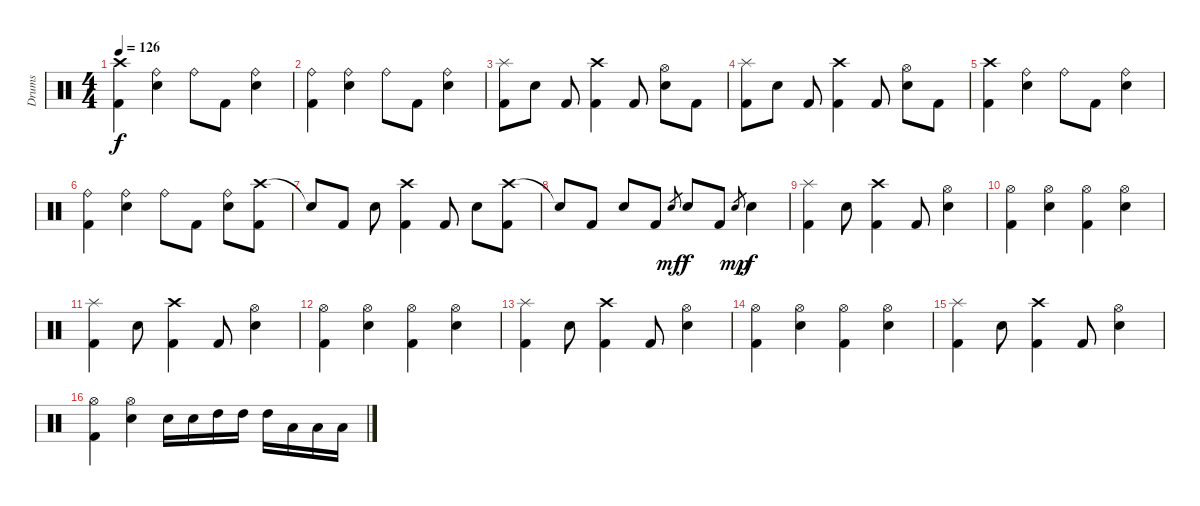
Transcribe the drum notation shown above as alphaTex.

\track ("Drums" "Drums") {instrument percussion}
\staff {score}
\articulation defaults
\ts (4 4)
\tempo 126
\clef neutral
\ks c
("Crash high (hit)" "Kick (hit) 2").4{dy f} ("Ride (bell)" "Snare (hit) 2").4 "Ride (bell)".8 "Kick (hit) 2".8 ("Ride (bell)" "Snare (hit) 2").4 |
("Ride (bell)" "Kick (hit) 2").4 ("Ride (bell)" "Snare (hit) 2").4 "Ride (bell)".8 "Kick (hit) 2".8 ("Ride (bell)" "Snare (hit) 2").4 |
("Splash (hit)" "Kick (hit) 2").8 "Snare (hit) 2".8 "Kick (hit) 2".8 ("Crash high (hit)" "Kick (hit) 2").4 "Kick (hit) 2".8 ("Hi-Hat (open)" "Snare (hit) 2").8 "Kick (hit) 2".8 |
("Splash (hit)" "Kick (hit) 2").8 "Snare (hit) 2".8 "Kick (hit) 2".8 ("Crash high (hit)" "Kick (hit) 2").4 "Kick (hit) 2".8 ("Hi-Hat (open)" "Snare (hit) 2").8 "Kick (hit) 2".8 |
("Crash high (hit)" "Kick (hit) 2").4 ("Ride (bell)" "Snare (hit) 2").4 "Ride (bell)".8 "Kick (hit) 2".8 ("Ride (bell)" "Snare (hit) 2").4 |
("Ride (bell)" "Kick (hit) 2").4 ("Ride (bell)" "Snare (hit) 2").4 "Ride (bell)".8 "Kick (hit) 2".8 ("Ride (bell)" "Snare (hit) 2").8 ("Crash high (hit)" "Kick (hit) 2").8 |
"Snare (hit)"{t}.8 "Kick (hit) 2".8 "Snare (hit) 2".8 ("Crash high (hit)" "Kick (hit) 2").4 "Kick (hit) 2".8 "Snare (hit) 2".8 ("Crash high (hit)" "Kick (hit) 2").8 |
"Snare (hit)"{t}.8 "Kick (hit) 2".8 "Snare (hit) 2".8 "Kick (hit) 2".8 "Snare (hit) 2".8{gr dy mf} "Snare (hit) 2".8{dy f} "Kick (hit) 2".8 "Snare (hit) 2".8{gr dy mp} "Snare (hit) 2".4{dy f} |
("Splash (hit)" "Kick (hit) 2").4 "Snare (hit) 2".8 ("Crash high (hit)" "Kick (hit) 2").4 "Kick (hit) 2".8 ("Hi-Hat (open)" "Snare (hit) 2").4 |
("Hi-Hat (open)" "Kick (hit) 2").4 ("Hi-Hat (open)" "Snare (hit) 2").4 ("Hi-Hat (open)" "Kick (hit) 2").4 ("Hi-Hat (open)" "Snare (hit) 2").4 |
("Splash (hit)" "Kick (hit) 2").4 "Snare (hit) 2".8 ("Crash high (hit)" "Kick (hit) 2").4 "Kick (hit) 2".8 ("Hi-Hat (open)" "Snare (hit) 2").4 |
("Hi-Hat (open)" "Kick (hit) 2").4 ("Hi-Hat (open)" "Snare (hit) 2").4 ("Hi-Hat (open)" "Kick (hit) 2").4 ("Hi-Hat (open)" "Snare (hit) 2").4 |
("Splash (hit)" "Kick (hit) 2").4 "Snare (hit) 2".8 ("Crash high (hit)" "Kick (hit) 2").4 "Kick (hit) 2".8 ("Hi-Hat (open)" "Snare (hit) 2").4 |
("Hi-Hat (open)" "Kick (hit) 2").4 ("Hi-Hat (open)" "Snare (hit) 2").4 ("Hi-Hat (open)" "Kick (hit) 2").4 ("Hi-Hat (open)" "Snare (hit) 2").4 |
("Splash (hit)" "Kick (hit) 2").4 "Snare (hit) 2".8 ("Crash high (hit)" "Kick (hit) 2").4 "Kick (hit) 2".8 ("Hi-Hat (open)" "Snare (hit) 2").4 |
("Hi-Hat (open)" "Kick (hit) 2").4 ("Hi-Hat (open)" "Snare (hit) 2").4 "Snare (hit) 2".16 "Snare (hit) 2".16 "High Tom (hit)".16 "High Tom (hit)".16 "High Tom (hit)".16 "Low Tom (hit)".16 "Low Tom (hit)".16 "Low Tom (hit)".16
